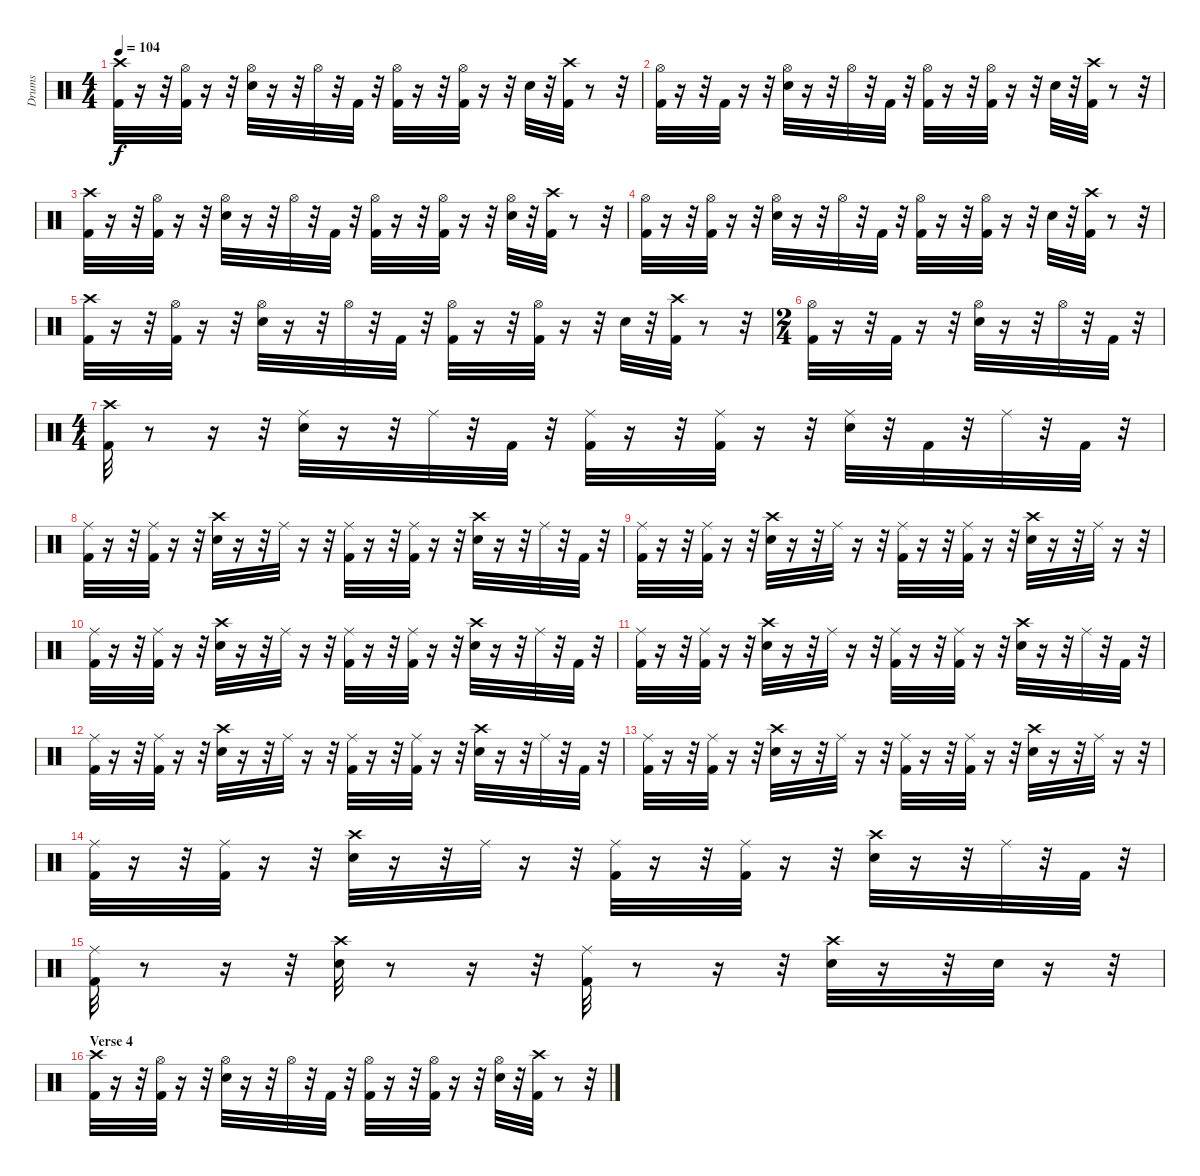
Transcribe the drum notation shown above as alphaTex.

\track ("Drums" "Drums") {instrument percussion}
\staff {score}
\articulation defaults
\ts (4 4)
\tempo 104
\clef neutral
\ks c
("Crash high (hit)" "Kick (hit) 2").32{dy f} r.16 r.32 ("Kick (hit) 2" "Hi-Hat (open)").32 r.16 r.32 ("Snare (hit) 2" "Hi-Hat (open)").32 r.16 r.32 "Hi-Hat (open)".32 r.32 "Kick (hit) 2".32 r.32 ("Kick (hit) 2" "Hi-Hat (open)").32 r.16 r.32 ("Hi-Hat (open)" "Kick (hit) 2").32 r.16 r.32 "Snare (hit) 2".32 r.32 ("Crash high (hit)" "Kick (hit) 2").32 r.8 r.32 |
("Kick (hit) 2" "Hi-Hat (open)").32 r.16 r.32 "Kick (hit) 2".32 r.16 r.32 ("Snare (hit) 2" "Hi-Hat (open)").32 r.16 r.32 "Hi-Hat (open)".32 r.32 "Kick (hit) 2".32 r.32 ("Hi-Hat (open)" "Kick (hit) 2").32 r.16 r.32 ("Kick (hit) 2" "Hi-Hat (open)").32 r.16 r.32 "Snare (hit) 2".32 r.32 ("Kick (hit) 2" "Crash high (hit)").32 r.8 r.32 |
("Crash high (hit)" "Kick (hit) 2").32 r.16 r.32 ("Hi-Hat (open)" "Kick (hit) 2").32 r.16 r.32 ("Hi-Hat (open)" "Snare (hit) 2").32 r.16 r.32 "Hi-Hat (open)".32 r.32 "Kick (hit) 2".32 r.32 ("Kick (hit) 2" "Hi-Hat (open)").32 r.16 r.32 ("Kick (hit) 2" "Hi-Hat (open)").32 r.16 r.32 ("Hi-Hat (open)" "Snare (hit) 2").32 r.32 ("Kick (hit) 2" "Crash high (hit)").32 r.8 r.32 |
("Hi-Hat (open)" "Kick (hit) 2").32 r.16 r.32 ("Kick (hit) 2" "Hi-Hat (open)").32 r.16 r.32 ("Hi-Hat (open)" "Snare (hit) 2").32 r.16 r.32 "Hi-Hat (open)".32 r.32 "Kick (hit) 2".32 r.32 ("Kick (hit) 2" "Hi-Hat (open)").32 r.16 r.32 ("Kick (hit) 2" "Hi-Hat (open)").32 r.16 r.32 "Snare (hit) 2".32 r.32 ("Kick (hit) 2" "Crash high (hit)").32 r.8 r.32 |
("Crash high (hit)" "Kick (hit) 2").32 r.16 r.32 ("Kick (hit) 2" "Hi-Hat (open)").32 r.16 r.32 ("Snare (hit) 2" "Hi-Hat (open)").32 r.16 r.32 "Hi-Hat (open)".32 r.32 "Kick (hit) 2".32 r.32 ("Kick (hit) 2" "Hi-Hat (open)").32 r.16 r.32 ("Hi-Hat (open)" "Kick (hit) 2").32 r.16 r.32 "Snare (hit) 2".32 r.32 ("Crash high (hit)" "Kick (hit) 2").32 r.8 r.32 |
\ts (2 4)
("Kick (hit) 2" "Hi-Hat (open)").32 r.16 r.32 "Kick (hit) 2".32 r.16 r.32 ("Snare (hit) 2" "Hi-Hat (open)").32 r.16 r.32 "Hi-Hat (open)".32 r.32 "Kick (hit) 2".32 r.32 |
\ts (4 4)
("Crash high (hit)" "Kick (hit) 2").32 r.8 r.16 r.32 ("Ride (middle)" "Snare (hit) 2").32 r.16 r.32 "Ride (middle)".32 r.32 "Kick (hit) 2".32 r.32 ("Kick (hit) 2" "Ride (middle)").32 r.16 r.32 ("Kick (hit) 2" "Ride (middle)").32 r.16 r.32 ("Ride (middle)" "Snare (hit) 2").32 r.32 "Kick (hit) 2".32 r.32 "Ride (middle)".32 r.32 "Kick (hit) 2".32 r.32 |
("Ride (middle)" "Kick (hit) 2").32 r.16 r.32 ("Ride (middle)" "Kick (hit) 2").32 r.16 r.32 ("Crash high (hit)" "Snare (hit) 2").32 r.16 r.32 "Ride (middle)".32 r.16 r.32 ("Ride (middle)" "Kick (hit) 2").32 r.16 r.32 ("Ride (middle)" "Kick (hit) 2").32 r.16 r.32 ("Crash high (hit)" "Snare (hit) 2").32 r.16 r.32 "Ride (middle)".32 r.32 "Kick (hit) 2".32 r.32 |
("Kick (hit) 2" "Ride (middle)").32 r.16 r.32 ("Ride (middle)" "Kick (hit) 2").32 r.16 r.32 ("Snare (hit) 2" "Crash high (hit)").32 r.16 r.32 "Ride (middle)".32 r.16 r.32 ("Ride (middle)" "Kick (hit) 2").32 r.16 r.32 ("Kick (hit) 2" "Ride (middle)").32 r.16 r.32 ("Snare (hit) 2" "Crash high (hit)").32 r.16 r.32 "Ride (middle)".32 r.16 r.32 |
("Kick (hit) 2" "Ride (middle)").32 r.16 r.32 ("Ride (middle)" "Kick (hit) 2").32 r.16 r.32 ("Crash high (hit)" "Snare (hit) 2").32 r.16 r.32 "Ride (middle)".32 r.16 r.32 ("Kick (hit) 2" "Ride (middle)").32 r.16 r.32 ("Ride (middle)" "Kick (hit) 2").32 r.16 r.32 ("Crash high (hit)" "Snare (hit) 2").32 r.16 r.32 "Ride (middle)".32 r.32 "Kick (hit) 2".32 r.32 |
("Kick (hit) 2" "Ride (middle)").32 r.16 r.32 ("Ride (middle)" "Kick (hit) 2").32 r.16 r.32 ("Crash high (hit)" "Snare (hit) 2").32 r.16 r.32 "Ride (middle)".32 r.16 r.32 ("Ride (middle)" "Kick (hit) 2").32 r.16 r.32 ("Kick (hit) 2" "Ride (middle)").32 r.16 r.32 ("Snare (hit) 2" "Crash high (hit)").32 r.16 r.32 "Ride (middle)".32 r.32 "Kick (hit) 2".32 r.32 |
("Ride (middle)" "Kick (hit) 2").32 r.16 r.32 ("Ride (middle)" "Kick (hit) 2").32 r.16 r.32 ("Crash high (hit)" "Snare (hit) 2").32 r.16 r.32 "Ride (middle)".32 r.16 r.32 ("Ride (middle)" "Kick (hit) 2").32 r.16 r.32 ("Ride (middle)" "Kick (hit) 2").32 r.16 r.32 ("Crash high (hit)" "Snare (hit) 2").32 r.16 r.32 "Ride (middle)".32 r.32 "Kick (hit) 2".32 r.32 |
("Kick (hit) 2" "Ride (middle)").32 r.16 r.32 ("Ride (middle)" "Kick (hit) 2").32 r.16 r.32 ("Snare (hit) 2" "Crash high (hit)").32 r.16 r.32 "Ride (middle)".32 r.16 r.32 ("Ride (middle)" "Kick (hit) 2").32 r.16 r.32 ("Kick (hit) 2" "Ride (middle)").32 r.16 r.32 ("Snare (hit) 2" "Crash high (hit)").32 r.16 r.32 "Ride (middle)".32 r.16 r.32 |
("Kick (hit) 2" "Ride (middle)").32 r.16 r.32 ("Ride (middle)" "Kick (hit) 2").32 r.16 r.32 ("Crash high (hit)" "Snare (hit) 2").32 r.16 r.32 "Ride (middle)".32 r.16 r.32 ("Kick (hit) 2" "Ride (middle)").32 r.16 r.32 ("Ride (middle)" "Kick (hit) 2").32 r.16 r.32 ("Crash high (hit)" "Snare (hit) 2").32 r.16 r.32 "Ride (middle)".32 r.32 "Kick (hit) 2".32 r.32 |
("Kick (hit) 2" "Ride (middle)").32 r.8 r.16 r.32 ("Crash high (hit)" "Snare (hit) 2").32 r.8 r.16 r.32 ("Kick (hit) 2" "Ride (middle)").32 r.8 r.16 r.32 ("Crash high (hit)" "Snare (hit) 2").32 r.16 r.32 "Snare (hit) 2".32 r.16 r.32 |
\section ("" "Verse 4")
("Crash high (hit)" "Kick (hit) 2").32 r.16 r.32 ("Hi-Hat (open)" "Kick (hit) 2").32 r.16 r.32 ("Hi-Hat (open)" "Snare (hit) 2").32 r.16 r.32 "Hi-Hat (open)".32 r.32 "Kick (hit) 2".32 r.32 ("Kick (hit) 2" "Hi-Hat (open)").32 r.16 r.32 ("Kick (hit) 2" "Hi-Hat (open)").32 r.16 r.32 ("Hi-Hat (open)" "Snare (hit) 2").32 r.32 ("Kick (hit) 2" "Crash high (hit)").32 r.8 r.32
